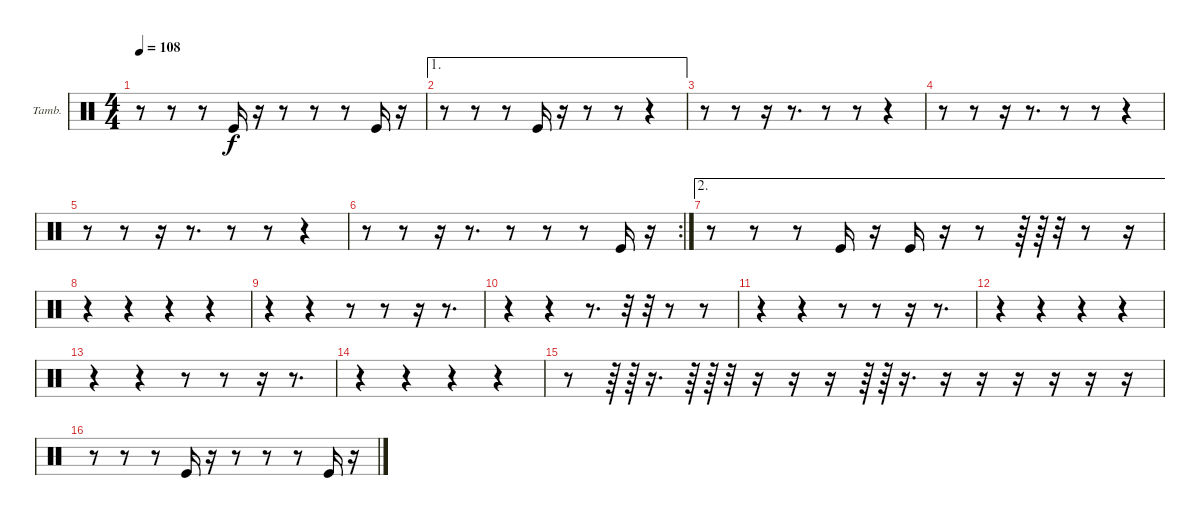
\bracketExtendMode groupsimilarinstruments
\firstSystemTrackNameOrientation horizontal
\otherSystemsTrackNameOrientation horizontal
\track ("Tambourine" "Tamb.") {instrument percussion}
\staff {score}
\articulation defaults
\ts (4 4)
\tempo 108
\clef neutral
\ks c
r.8{dy f} r.8 r.8 "Kick (hit)".16 r.16 r.8 r.8 r.8 "Kick (hit)".16 r.16 |
\ae 1
r.8 r.8 r.8 "Kick (hit)".16 r.16 r.8 r.8 r.4 |
r.8 r.8 r.16 r.8{d} r.8 r.8 r.4 |
r.8 r.8 r.16 r.8{d} r.8 r.8 r.4 |
r.8 r.8 r.16 r.8{d} r.8 r.8 r.4 |
\rc 2
r.8 r.8 r.16 r.8{d} r.8 r.8 r.8 "Kick (hit)".16 r.16 |
\ae 2
r.8 r.8 r.8 "Kick (hit)".16 r.16 "Kick (hit)".16 r.16 r.8 r.64 r.64 r.32 r.8 r.16 |
r.4 r.4 r.4 r.4 |
r.4 r.4 r.8 r.8 r.16 r.8{d} |
r.4 r.4 r.8{d} r.32 r.32 r.8 r.8 |
r.4 r.4 r.8 r.8 r.16 r.8{d} |
r.4 r.4 r.4 r.4 |
r.4 r.4 r.8 r.8 r.16 r.8{d} |
r.4 r.4 r.4 r.4 |
r.8 r.64 r.64 r.16{d} r.64 r.64 r.32 r.16 r.16 r.16 r.64 r.64 r.16{d} r.16 r.16 r.16 r.16 r.16 r.16 |
r.8 r.8 r.8 "Kick (hit)".16 r.16 r.8 r.8 r.8 "Kick (hit)".16 r.16
